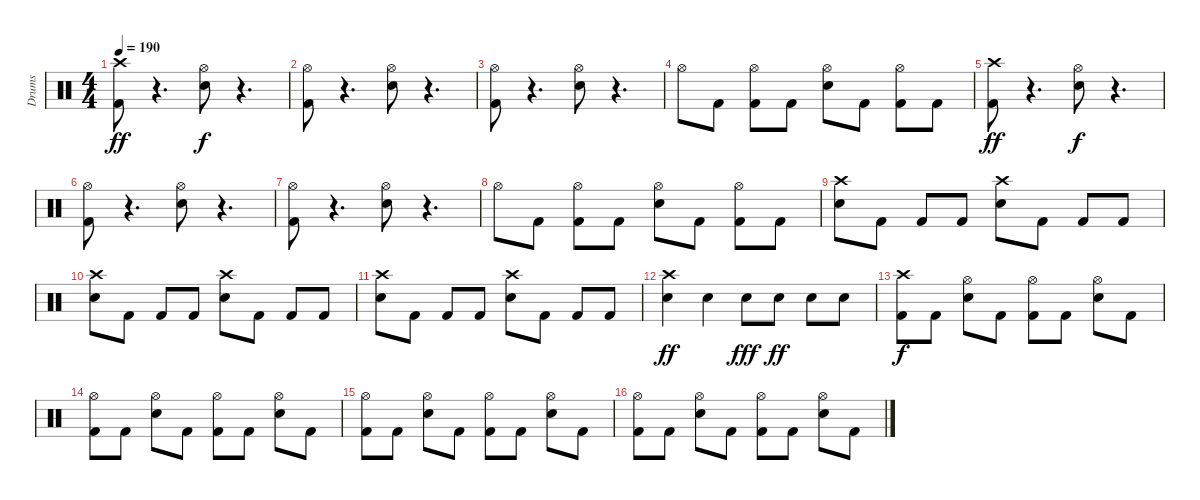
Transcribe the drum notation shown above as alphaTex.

\track ("Drums" "Drums") {instrument percussion}
\staff {score}
\articulation defaults
\ts (4 4)
\tempo 190
\clef neutral
\ks c
("Kick (hit) 2" "Crash high (hit)").8{dy ff} r.4{d} ("Snare (hit) 2" "Hi-Hat (open)").8{dy f} r.4{d} |
("Kick (hit) 2" "Hi-Hat (open)").8 r.4{d} ("Snare (hit) 2" "Hi-Hat (open)").8 r.4{d} |
("Kick (hit) 2" "Hi-Hat (open)").8 r.4{d} ("Snare (hit) 2" "Hi-Hat (open)").8 r.4{d} |
"Hi-Hat (open)".8 "Kick (hit) 2".8 ("Kick (hit) 2" "Hi-Hat (open)").8 "Kick (hit) 2".8 ("Snare (hit) 2" "Hi-Hat (open)").8 "Kick (hit) 2".8 ("Kick (hit) 2" "Hi-Hat (open)").8 "Kick (hit) 2".8 |
("Kick (hit) 2" "Crash high (hit)").8{dy ff} r.4{d} ("Snare (hit) 2" "Hi-Hat (open)").8{dy f} r.4{d} |
("Kick (hit) 2" "Hi-Hat (open)").8 r.4{d} ("Snare (hit) 2" "Hi-Hat (open)").8 r.4{d} |
("Kick (hit) 2" "Hi-Hat (open)").8 r.4{d} ("Snare (hit) 2" "Hi-Hat (open)").8 r.4{d} |
"Hi-Hat (open)".8 "Kick (hit) 2".8 ("Kick (hit) 2" "Hi-Hat (open)").8 "Kick (hit) 2".8 ("Snare (hit) 2" "Hi-Hat (open)").8 "Kick (hit) 2".8 ("Kick (hit) 2" "Hi-Hat (open)").8 "Kick (hit) 2".8 |
("Snare (hit) 2" "Crash high (hit)").8 "Kick (hit) 2".8 "Kick (hit) 2".8 "Kick (hit) 2".8 ("Snare (hit) 2" "Crash high (hit)").8 "Kick (hit) 2".8 "Kick (hit) 2".8 "Kick (hit) 2".8 |
("Snare (hit) 2" "Crash high (hit)").8 "Kick (hit) 2".8 "Kick (hit) 2".8 "Kick (hit) 2".8 ("Snare (hit) 2" "Crash high (hit)").8 "Kick (hit) 2".8 "Kick (hit) 2".8 "Kick (hit) 2".8 |
("Snare (hit) 2" "Crash high (hit)").8 "Kick (hit) 2".8 "Kick (hit) 2".8 "Kick (hit) 2".8 ("Snare (hit) 2" "Crash high (hit)").8 "Kick (hit) 2".8 "Kick (hit) 2".8 "Kick (hit) 2".8 |
("Snare (hit) 2" "Crash high (hit)").4{dy ff} "Snare (hit) 2".4 "Snare (hit) 2".8{dy fff} "Snare (hit) 2".8{dy ff} "Snare (hit) 2".8 "Snare (hit) 2".8 |
("Kick (hit) 2" "Crash high (hit)").8{dy f} "Kick (hit) 2".8 ("Snare (hit) 2" "Hi-Hat (open)").8 "Kick (hit) 2".8 ("Kick (hit) 2" "Hi-Hat (open)").8 "Kick (hit) 2".8 ("Snare (hit) 2" "Hi-Hat (open)").8 "Kick (hit) 2".8 |
("Kick (hit) 2" "Hi-Hat (open)").8 "Kick (hit) 2".8 ("Snare (hit) 2" "Hi-Hat (open)").8 "Kick (hit) 2".8 ("Kick (hit) 2" "Hi-Hat (open)").8 "Kick (hit) 2".8 ("Snare (hit) 2" "Hi-Hat (open)").8 "Kick (hit) 2".8 |
("Kick (hit) 2" "Hi-Hat (open)").8 "Kick (hit) 2".8 ("Snare (hit) 2" "Hi-Hat (open)").8 "Kick (hit) 2".8 ("Kick (hit) 2" "Hi-Hat (open)").8 "Kick (hit) 2".8 ("Snare (hit) 2" "Hi-Hat (open)").8 "Kick (hit) 2".8 |
("Kick (hit) 2" "Hi-Hat (open)").8 "Kick (hit) 2".8 ("Snare (hit) 2" "Hi-Hat (open)").8 "Kick (hit) 2".8 ("Kick (hit) 2" "Hi-Hat (open)").8 "Kick (hit) 2".8 ("Snare (hit) 2" "Hi-Hat (open)").8 "Kick (hit) 2".8
